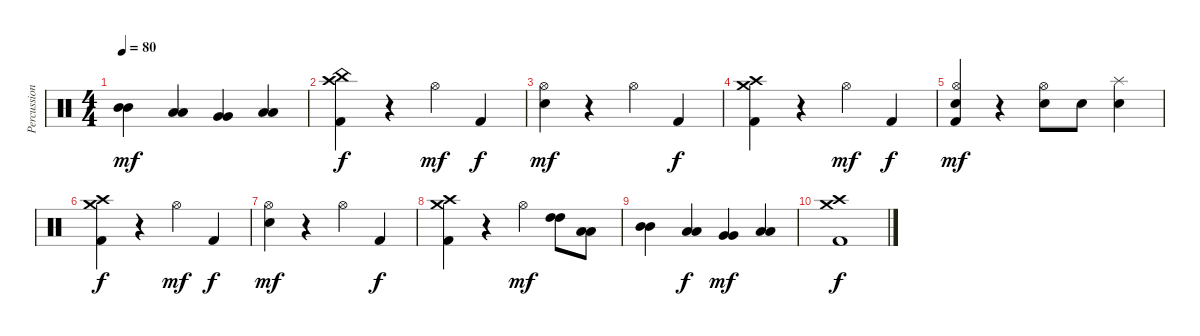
\track ("Percussioni" "Percussion") {instrument percussion}
\staff {score}
\articulation defaults
\ts (4 4)
\tempo 80
\clef neutral
\ks c
("Mid Tom (hit)" "Mid Tom (hit)").4{dy mf} ("Low Tom (hit)" "Low Tom (hit)").4 ("Very Low Tom (hit)" "Very Low Tom (hit)").4 ("Low Floor Tom (hit)" "Low Floor Tom (hit)").4 |
("Crash high (hit)" "China (hit)" "Kick (hit) 2").4{dy f} r.4 "Hi-Hat (open)".4{dy mf} "Kick (hit) 2".4{dy f} |
("Hi-Hat (open)" "Snare (hit) 2").4{dy mf} r.4 "Hi-Hat (open)".4 "Kick (hit) 2".4{dy f} |
("Crash high (hit)" "Crash medium (hit)" "Kick (hit) 2").4 r.4 "Hi-Hat (open)".4{dy mf} "Kick (hit) 2".4{dy f} |
("Hi-Hat (open)" "Snare (hit) 2" "Kick (hit) 2").4{dy mf} r.4 ("Hi-Hat (open)" "Electric Snare (hit)").8 "Electric Snare (hit)".8 ("Splash (hit)" "Electric Snare (hit)").4 |
("Crash high (hit)" "Crash medium (hit)" "Kick (hit) 2").4{dy f} r.4 "Hi-Hat (open)".4{dy mf} "Kick (hit) 2".4{dy f} |
("Hi-Hat (open)" "Snare (hit) 2").4{dy mf} r.4 "Hi-Hat (open)".4 "Kick (hit) 2".4{dy f} |
("Crash high (hit)" "Crash medium (hit)" "Kick (hit) 2").4 r.4 "Hi-Hat (open)".4{dy mf} ("High Tom (hit)" "High Tom (hit)").8 ("Low Tom (hit)" "Low Tom (hit)").8 |
("Mid Tom (hit)" "Mid Tom (hit)").4 ("Low Tom (hit)" "Low Tom (hit)").4{dy f} ("Very Low Tom (hit)" "Very Low Tom (hit)").4{dy mf} ("Low Floor Tom (hit)" "Low Floor Tom (hit)").4 |
("Crash high (hit)" "Crash medium (hit)" "Kick (hit) 2").1{dy f}
